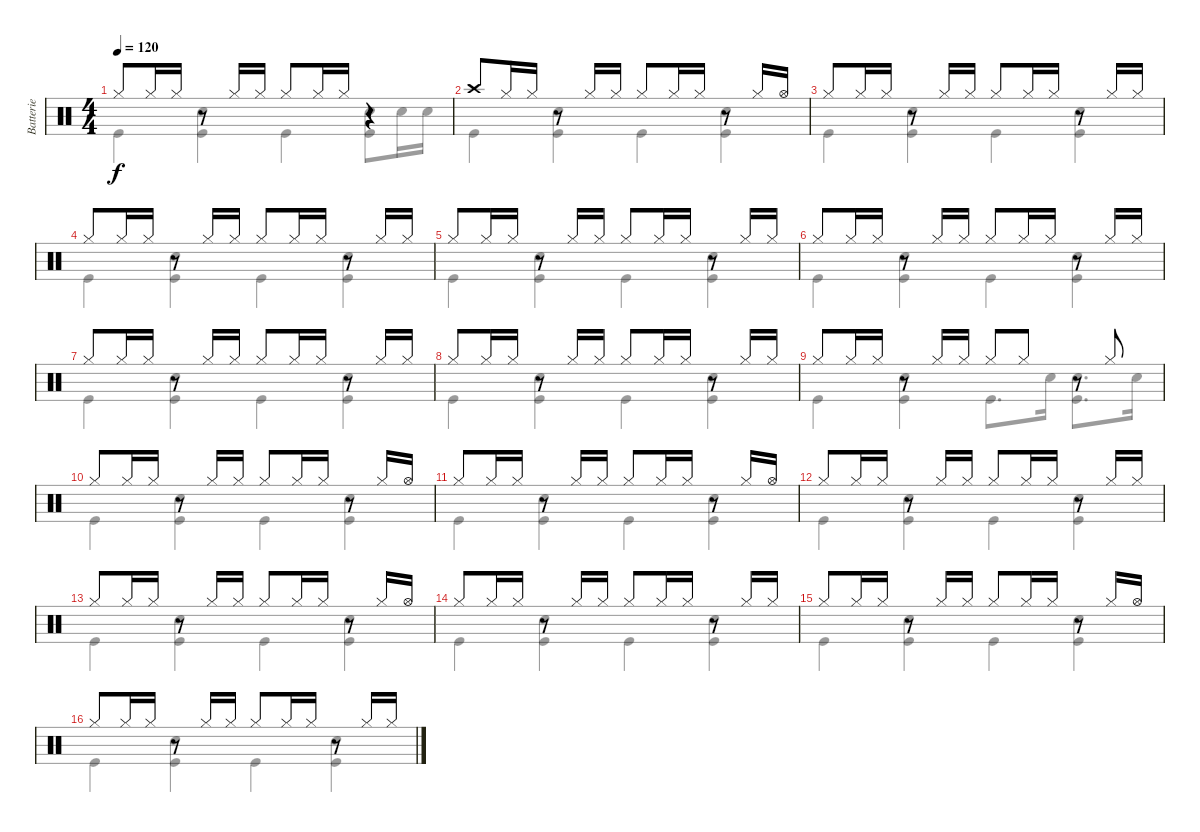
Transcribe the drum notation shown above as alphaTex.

\track ("Batterie" "Batterie") {instrument percussion}
\staff {score}
\articulation defaults
\voice
\ts (4 4)
\tempo 120
\clef neutral
\ks c "Hi-Hat (closed)".8{dy f} "Hi-Hat (closed)".16 "Hi-Hat (closed)".16
r.8 "Hi-Hat (closed)".16 "Hi-Hat (closed)".16 "Hi-Hat (closed)".8 "Hi-Hat (closed)".16 "Hi-Hat (closed)".16 r.4 |
"Crash high (hit)".8 "Hi-Hat (closed)".16 "Hi-Hat (closed)".16 r.8 "Hi-Hat (closed)".16 "Hi-Hat (closed)".16 "Hi-Hat (closed)".8 "Hi-Hat (closed)".16 "Hi-Hat (closed)".16 r.8 "Hi-Hat (closed)".16 "Hi-Hat (open)".16 |
"Hi-Hat (closed)".8 "Hi-Hat (closed)".16 "Hi-Hat (closed)".16 r.8 "Hi-Hat (closed)".16 "Hi-Hat (closed)".16 "Hi-Hat (closed)".8 "Hi-Hat (closed)".16 "Hi-Hat (closed)".16 r.8 "Hi-Hat (closed)".16 "Hi-Hat (closed)".16 |
"Hi-Hat (closed)".8 "Hi-Hat (closed)".16 "Hi-Hat (closed)".16 r.8 "Hi-Hat (closed)".16 "Hi-Hat (closed)".16 "Hi-Hat (closed)".8 "Hi-Hat (closed)".16 "Hi-Hat (closed)".16 r.8 "Hi-Hat (closed)".16 "Hi-Hat (closed)".16 |
"Hi-Hat (closed)".8 "Hi-Hat (closed)".16 "Hi-Hat (closed)".16 r.8 "Hi-Hat (closed)".16 "Hi-Hat (closed)".16 "Hi-Hat (closed)".8 "Hi-Hat (closed)".16 "Hi-Hat (closed)".16 r.8 "Hi-Hat (closed)".16 "Hi-Hat (closed)".16 |
"Hi-Hat (closed)".8 "Hi-Hat (closed)".16 "Hi-Hat (closed)".16 r.8 "Hi-Hat (closed)".16 "Hi-Hat (closed)".16 "Hi-Hat (closed)".8 "Hi-Hat (closed)".16 "Hi-Hat (closed)".16 r.8 "Hi-Hat (closed)".16 "Hi-Hat (closed)".16 |
"Hi-Hat (closed)".8 "Hi-Hat (closed)".16 "Hi-Hat (closed)".16 r.8 "Hi-Hat (closed)".16 "Hi-Hat (closed)".16 "Hi-Hat (closed)".8 "Hi-Hat (closed)".16 "Hi-Hat (closed)".16 r.8 "Hi-Hat (closed)".16 "Hi-Hat (closed)".16 |
"Hi-Hat (closed)".8 "Hi-Hat (closed)".16 "Hi-Hat (closed)".16 r.8 "Hi-Hat (closed)".16 "Hi-Hat (closed)".16 "Hi-Hat (closed)".8 "Hi-Hat (closed)".16 "Hi-Hat (closed)".16 r.8 "Hi-Hat (closed)".16 "Hi-Hat (closed)".16 |
"Hi-Hat (closed)".8 "Hi-Hat (closed)".16 "Hi-Hat (closed)".16 r.8 "Hi-Hat (closed)".16 "Hi-Hat (closed)".16 "Hi-Hat (closed)".8 "Hi-Hat (closed)".8 r.8 "Hi-Hat (closed)".8 |
"Hi-Hat (closed)".8 "Hi-Hat (closed)".16 "Hi-Hat (closed)".16 r.8 "Hi-Hat (closed)".16 "Hi-Hat (closed)".16 "Hi-Hat (closed)".8 "Hi-Hat (closed)".16 "Hi-Hat (closed)".16 r.8 "Hi-Hat (closed)".16 "Hi-Hat (open)".16 |
"Hi-Hat (closed)".8 "Hi-Hat (closed)".16 "Hi-Hat (closed)".16 r.8 "Hi-Hat (closed)".16 "Hi-Hat (closed)".16 "Hi-Hat (closed)".8 "Hi-Hat (closed)".16 "Hi-Hat (closed)".16 r.8 "Hi-Hat (closed)".16 "Hi-Hat (open)".16 |
"Hi-Hat (closed)".8 "Hi-Hat (closed)".16 "Hi-Hat (closed)".16 r.8 "Hi-Hat (closed)".16 "Hi-Hat (closed)".16 "Hi-Hat (closed)".8 "Hi-Hat (closed)".16 "Hi-Hat (closed)".16 r.8 "Hi-Hat (closed)".16 "Hi-Hat (closed)".16 |
"Hi-Hat (closed)".8 "Hi-Hat (closed)".16 "Hi-Hat (closed)".16 r.8 "Hi-Hat (closed)".16 "Hi-Hat (closed)".16 "Hi-Hat (closed)".8 "Hi-Hat (closed)".16 "Hi-Hat (closed)".16 r.8 "Hi-Hat (closed)".16 "Hi-Hat (open)".16 |
"Hi-Hat (closed)".8 "Hi-Hat (closed)".16 "Hi-Hat (closed)".16 r.8 "Hi-Hat (closed)".16 "Hi-Hat (closed)".16 "Hi-Hat (closed)".8 "Hi-Hat (closed)".16 "Hi-Hat (closed)".16 r.8 "Hi-Hat (closed)".16 "Hi-Hat (closed)".16 |
"Hi-Hat (closed)".8 "Hi-Hat (closed)".16 "Hi-Hat (closed)".16 r.8 "Hi-Hat (closed)".16 "Hi-Hat (closed)".16 "Hi-Hat (closed)".8 "Hi-Hat (closed)".16 "Hi-Hat (closed)".16 r.8 "Hi-Hat (closed)".16 "Hi-Hat (open)".16 |
"Hi-Hat (closed)".8 "Hi-Hat (closed)".16 "Hi-Hat (closed)".16 r.8 "Hi-Hat (closed)".16 "Hi-Hat (closed)".16 "Hi-Hat (closed)".8 "Hi-Hat (closed)".16 "Hi-Hat (closed)".16 r.8 "Hi-Hat (closed)".16 "Hi-Hat (closed)".16
\voice
\clef neutral
\ottava regular
\simile none
\ks c "Kick (hit)".4{dy f}
("Snare (hit) 2" "Kick (hit)").4 "Kick (hit)".4 ("Snare (hit) 2" "Kick (hit)").8 "Snare (hit) 2".16 "Snare (hit) 2".16 |
"Kick (hit)".4 ("Snare (hit) 2" "Kick (hit)").4 "Kick (hit)".4 ("Snare (hit) 2" "Kick (hit)").4 |
"Kick (hit)".4 ("Snare (hit) 2" "Kick (hit)").4 "Kick (hit)".4 ("Snare (hit) 2" "Kick (hit)").4 |
"Kick (hit)".4 ("Snare (hit) 2" "Kick (hit)").4 "Kick (hit)".4 ("Snare (hit) 2" "Kick (hit)").4 |
"Kick (hit)".4 ("Snare (hit) 2" "Kick (hit)").4 "Kick (hit)".4 ("Snare (hit) 2" "Kick (hit)").4 |
"Kick (hit)".4 ("Snare (hit) 2" "Kick (hit)").4 "Kick (hit)".4 ("Snare (hit) 2" "Kick (hit)").4 |
"Kick (hit)".4 ("Snare (hit) 2" "Kick (hit)").4 "Kick (hit)".4 ("Snare (hit) 2" "Kick (hit)").4 |
"Kick (hit)".4 ("Snare (hit) 2" "Kick (hit)").4 "Kick (hit)".4 ("Snare (hit) 2" "Kick (hit)").4 |
"Kick (hit)".4 ("Snare (hit) 2" "Kick (hit)").4 "Kick (hit)".8{d} "Snare (hit) 2".16 ("Snare (hit) 2" "Kick (hit)").8{d} "Snare (hit) 2".16 |
"Kick (hit)".4 ("Snare (hit) 2" "Kick (hit)").4 "Kick (hit)".4 ("Snare (hit) 2" "Kick (hit)").4 |
"Kick (hit)".4 ("Snare (hit) 2" "Kick (hit)").4 "Kick (hit)".4 ("Snare (hit) 2" "Kick (hit)").4 |
"Kick (hit)".4 ("Snare (hit) 2" "Kick (hit)").4 "Kick (hit)".4 ("Snare (hit) 2" "Kick (hit)").4 |
"Kick (hit)".4 ("Snare (hit) 2" "Kick (hit)").4 "Kick (hit)".4 ("Snare (hit) 2" "Kick (hit)").4 |
"Kick (hit)".4 ("Snare (hit) 2" "Kick (hit)").4 "Kick (hit)".4 ("Snare (hit) 2" "Kick (hit)").4 |
"Kick (hit)".4 ("Snare (hit) 2" "Kick (hit)").4 "Kick (hit)".4 ("Snare (hit) 2" "Kick (hit)").4 |
"Kick (hit)".4 ("Snare (hit) 2" "Kick (hit)").4 "Kick (hit)".4 ("Snare (hit) 2" "Kick (hit)").4
